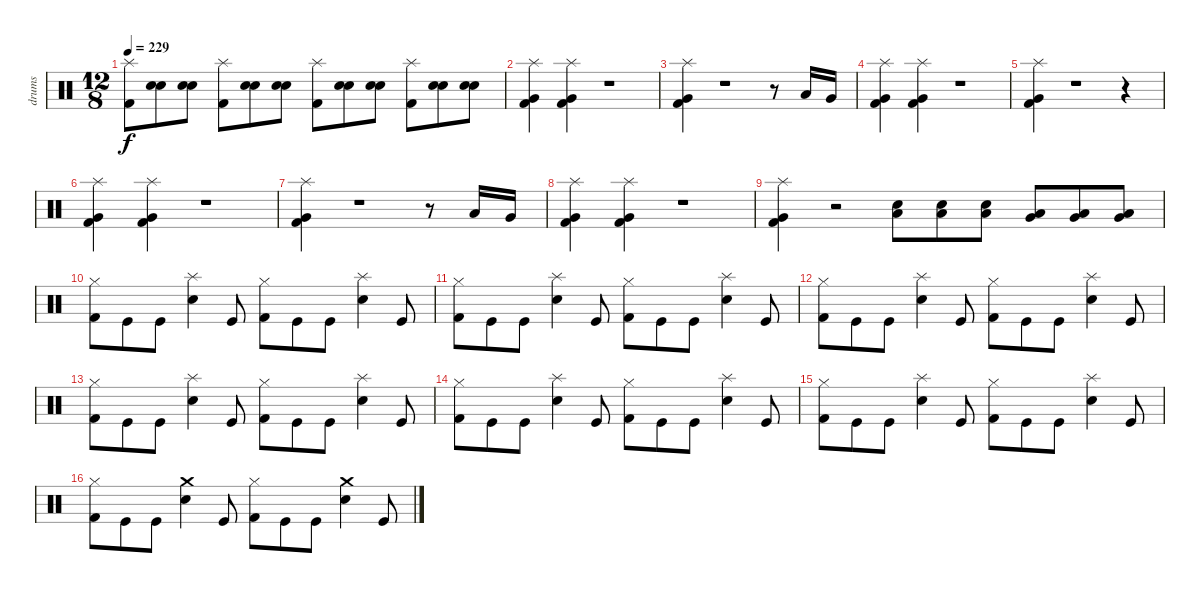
\track ("drums" "drums") {instrument percussion}
\staff {score}
\articulation defaults
\ts (12 8)
\tempo 229
\clef neutral
\ks c
("Splash (hit)" "Kick (hit) 2").8{dy f} ("Electric Snare (hit)" "Snare (hit) 2").8 ("Electric Snare (hit)" "Snare (hit) 2").8 ("Splash (hit)" "Kick (hit) 2").8 ("Electric Snare (hit)" "Snare (hit) 2").8 ("Electric Snare (hit)" "Snare (hit) 2").8 ("Splash (hit)" "Kick (hit) 2").8 ("Electric Snare (hit)" "Snare (hit) 2").8 ("Electric Snare (hit)" "Snare (hit) 2").8 ("Splash (hit)" "Kick (hit) 2").8 ("Snare (hit) 2" "Electric Snare (hit)").8 ("Snare (hit) 2" "Electric Snare (hit)").8 |
("Very Low Tom (hit)" "Splash (hit)" "Kick (hit) 2").4 ("Very Low Tom (hit)" "Splash (hit)" "Kick (hit) 2").4 r.1 |
("Splash (hit)" "Very Low Tom (hit)" "Kick (hit) 2").4 r.1 r.8 "Low Floor Tom (hit)".16 "Very Low Tom (hit)".16 |
("Splash (hit)" "Very Low Tom (hit)" "Kick (hit) 2").4 ("Very Low Tom (hit)" "Kick (hit) 2" "Splash (hit)").4 r.1 |
("Splash (hit)" "Very Low Tom (hit)" "Kick (hit) 2").4 r.1 r.4 |
("Splash (hit)" "Very Low Tom (hit)" "Kick (hit) 2").4 ("Splash (hit)" "Very Low Tom (hit)" "Kick (hit) 2").4 r.1 |
("Very Low Tom (hit)" "Splash (hit)" "Kick (hit) 2").4 r.1 r.8 "Low Floor Tom (hit)".16 "Very Low Tom (hit)".16 |
("Splash (hit)" "Very Low Tom (hit)" "Kick (hit) 2").4 ("Splash (hit)" "Very Low Tom (hit)" "Kick (hit) 2").4 r.1 |
("Splash (hit)" "Very Low Tom (hit)" "Kick (hit) 2").4 r.2 ("Low Tom (hit)" "Snare (hit) 2").8 ("Low Tom (hit)" "Snare (hit) 2").8 ("Snare (hit) 2" "Low Tom (hit)").8 ("Very Low Tom (hit)" "Low Floor Tom (hit)").8 ("Very Low Tom (hit)" "Low Floor Tom (hit)").8 ("Very Low Tom (hit)" "Low Floor Tom (hit)").8 |
("Hi-Hat (closed)" "Kick (hit) 2").8 "Kick (hit)".8 "Kick (hit)".8 ("Splash (hit)" "Snare (hit) 2").4 "Kick (hit)".8 ("Hi-Hat (closed)" "Kick (hit) 2").8 "Kick (hit)".8 "Kick (hit)".8 ("Splash (hit)" "Snare (hit) 2").4 "Kick (hit)".8 |
("Hi-Hat (closed)" "Kick (hit) 2").8 "Kick (hit)".8 "Kick (hit)".8 ("Splash (hit)" "Snare (hit) 2").4 "Kick (hit)".8 ("Hi-Hat (closed)" "Kick (hit) 2").8 "Kick (hit)".8 "Kick (hit)".8 ("Splash (hit)" "Snare (hit) 2").4 "Kick (hit)".8 |
("Hi-Hat (closed)" "Kick (hit) 2").8 "Kick (hit)".8 "Kick (hit)".8 ("Splash (hit)" "Snare (hit) 2").4 "Kick (hit)".8 ("Hi-Hat (closed)" "Kick (hit) 2").8 "Kick (hit)".8 "Kick (hit)".8 ("Splash (hit)" "Snare (hit) 2").4 "Kick (hit)".8 |
("Hi-Hat (closed)" "Kick (hit) 2").8 "Kick (hit)".8 "Kick (hit)".8 ("Splash (hit)" "Snare (hit) 2").4 "Kick (hit)".8 ("Hi-Hat (closed)" "Kick (hit) 2").8 "Kick (hit)".8 "Kick (hit)".8 ("Splash (hit)" "Snare (hit) 2").4 "Kick (hit)".8 |
("Hi-Hat (closed)" "Kick (hit) 2").8 "Kick (hit)".8 "Kick (hit)".8 ("Splash (hit)" "Snare (hit) 2").4 "Kick (hit)".8 ("Hi-Hat (closed)" "Kick (hit) 2").8 "Kick (hit)".8 "Kick (hit)".8 ("Splash (hit)" "Snare (hit) 2").4 "Kick (hit)".8 |
("Hi-Hat (closed)" "Kick (hit) 2").8 "Kick (hit)".8 "Kick (hit)".8 ("Splash (hit)" "Snare (hit) 2").4 "Kick (hit)".8 ("Hi-Hat (closed)" "Kick (hit) 2").8 "Kick (hit)".8 "Kick (hit)".8 ("Splash (hit)" "Snare (hit) 2").4 "Kick (hit)".8 |
("Hi-Hat (closed)" "Kick (hit) 2").8 "Kick (hit)".8 "Kick (hit)".8 ("Crash medium (hit)" "Snare (hit) 2").4 "Kick (hit)".8 ("Hi-Hat (closed)" "Kick (hit) 2").8 "Kick (hit)".8 "Kick (hit)".8 ("Crash medium (hit)" "Snare (hit) 2").4 "Kick (hit)".8
